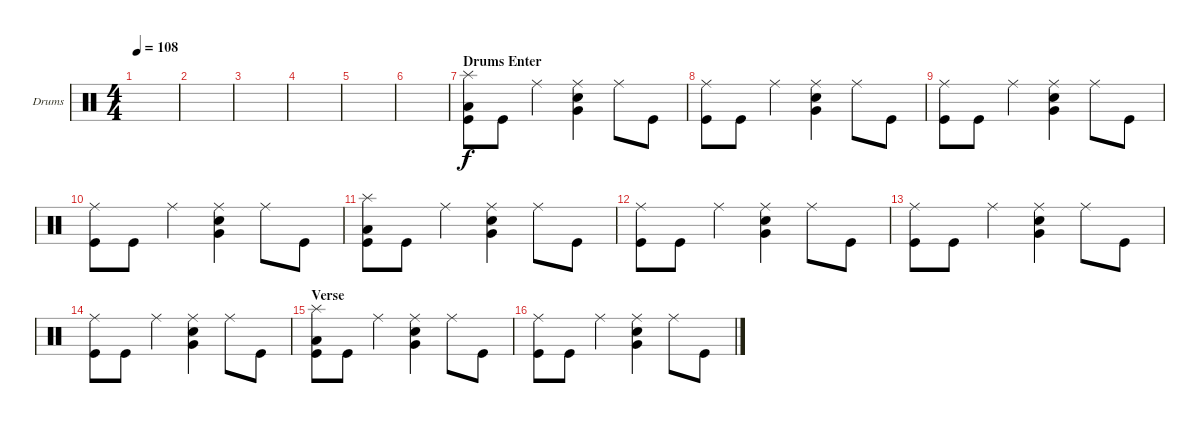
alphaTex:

\bracketExtendMode groupsimilarinstruments
\firstSystemTrackNameOrientation horizontal
\otherSystemsTrackNameOrientation horizontal
\track ("Drumkit" "Drums") {instrument percussion}
\staff {score}
\articulation defaults
\ts (4 4)
\tempo 108
\clef neutral
\ks c
|
|
|
|
|
|
\section ("" "Drums Enter")
("Kick (hit)" "Low Tom (hit)" "Splash (hit)").8 "Kick (hit)".8 "Ride (middle)".4 ("Snare (hit) 2" "Ride (middle)" "Very Low Tom (hit)").4 "Ride (middle)".8 "Kick (hit)".8 |
("Ride (middle)" "Kick (hit)").8 "Kick (hit)".8 "Ride (middle)".4 ("Snare (hit) 2" "Ride (middle)" "Very Low Tom (hit)").4 "Ride (middle)".8 "Kick (hit)".8 |
("Ride (middle)" "Kick (hit)").8 "Kick (hit)".8 "Ride (middle)".4 ("Snare (hit) 2" "Ride (middle)" "Very Low Tom (hit)").4 "Ride (middle)".8 "Kick (hit)".8 |
("Ride (middle)" "Kick (hit)").8 "Kick (hit)".8 "Ride (middle)".4 ("Snare (hit) 2" "Ride (middle)" "Very Low Tom (hit)").4 "Ride (middle)".8 "Kick (hit)".8 |
("Kick (hit)" "Low Tom (hit)" "Splash (hit)").8 "Kick (hit)".8 "Ride (middle)".4 ("Snare (hit) 2" "Ride (middle)" "Very Low Tom (hit)").4 "Ride (middle)".8 "Kick (hit)".8 |
("Ride (middle)" "Kick (hit)").8 "Kick (hit)".8 "Ride (middle)".4 ("Snare (hit) 2" "Ride (middle)" "Very Low Tom (hit)").4 "Ride (middle)".8 "Kick (hit)".8 |
("Ride (middle)" "Kick (hit)").8 "Kick (hit)".8 "Ride (middle)".4 ("Snare (hit) 2" "Ride (middle)" "Very Low Tom (hit)").4 "Ride (middle)".8 "Kick (hit)".8 |
("Ride (middle)" "Kick (hit)").8 "Kick (hit)".8 "Ride (middle)".4 ("Snare (hit) 2" "Ride (middle)" "Very Low Tom (hit)").4 "Ride (middle)".8 "Kick (hit)".8 |
\section ("" "Verse")
("Kick (hit)" "Low Tom (hit)" "Splash (hit)").8 "Kick (hit)".8 "Ride (middle)".4 ("Snare (hit) 2" "Ride (middle)" "Very Low Tom (hit)").4 "Ride (middle)".8 "Kick (hit)".8 |
("Ride (middle)" "Kick (hit)").8 "Kick (hit)".8 "Ride (middle)".4 ("Snare (hit) 2" "Ride (middle)" "Very Low Tom (hit)").4 "Ride (middle)".8 "Kick (hit)".8
